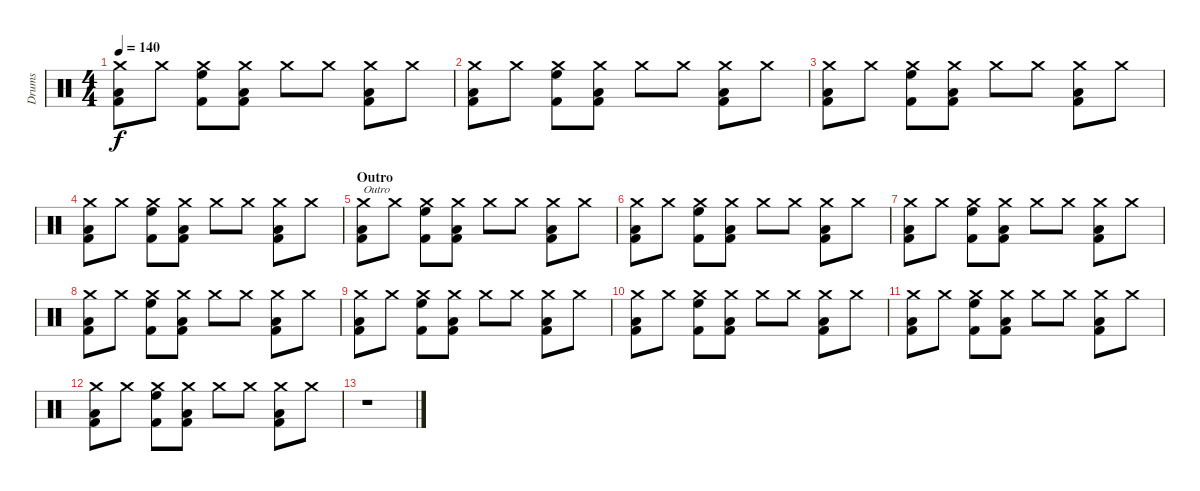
\track ("Drums" "Drums") {instrument percussion}
\staff {score}
\articulation defaults
\ts (4 4)
\tempo 140
\clef neutral
\ks c
("Low Tom (hit)" "Crash medium (hit)" "Kick (hit) 2").8{dy f} "Crash medium (hit)".8 ("High Floor Tom (hit)" "Crash medium (hit)" "Kick (hit) 2").8 ("Low Tom (hit)" "Crash medium (hit)" "Kick (hit) 2").8 "Crash medium (hit)".8 "Crash medium (hit)".8 ("Low Tom (hit)" "Crash medium (hit)" "Kick (hit) 2").8 "Crash medium (hit)".8 |
("Low Tom (hit)" "Crash medium (hit)" "Kick (hit) 2").8 "Crash medium (hit)".8 ("High Floor Tom (hit)" "Crash medium (hit)" "Kick (hit) 2").8 ("Low Tom (hit)" "Crash medium (hit)" "Kick (hit) 2").8 "Crash medium (hit)".8 "Crash medium (hit)".8 ("Low Tom (hit)" "Crash medium (hit)" "Kick (hit) 2").8 "Crash medium (hit)".8 |
("Low Tom (hit)" "Crash medium (hit)" "Kick (hit) 2").8 "Crash medium (hit)".8 ("High Floor Tom (hit)" "Crash medium (hit)" "Kick (hit) 2").8 ("Low Tom (hit)" "Crash medium (hit)" "Kick (hit) 2").8 "Crash medium (hit)".8 "Crash medium (hit)".8 ("Low Tom (hit)" "Crash medium (hit)" "Kick (hit) 2").8 "Crash medium (hit)".8 |
("Low Tom (hit)" "Crash medium (hit)" "Kick (hit) 2").8 "Crash medium (hit)".8 ("High Floor Tom (hit)" "Crash medium (hit)" "Kick (hit) 2").8 ("Low Tom (hit)" "Crash medium (hit)" "Kick (hit) 2").8 "Crash medium (hit)".8 "Crash medium (hit)".8 ("Low Tom (hit)" "Crash medium (hit)" "Kick (hit) 2").8 "Crash medium (hit)".8 |
\section ("" "Outro")
("Low Tom (hit)" "Crash medium (hit)" "Kick (hit) 2").8{txt "Outro"} "Crash medium (hit)".8 ("High Floor Tom (hit)" "Crash medium (hit)" "Kick (hit) 2").8 ("Low Tom (hit)" "Crash medium (hit)" "Kick (hit) 2").8 "Crash medium (hit)".8 "Crash medium (hit)".8 ("Low Tom (hit)" "Crash medium (hit)" "Kick (hit) 2").8 "Crash medium (hit)".8 |
("Low Tom (hit)" "Crash medium (hit)" "Kick (hit) 2").8 "Crash medium (hit)".8 ("High Floor Tom (hit)" "Crash medium (hit)" "Kick (hit) 2").8 ("Low Tom (hit)" "Crash medium (hit)" "Kick (hit) 2").8 "Crash medium (hit)".8 "Crash medium (hit)".8 ("Low Tom (hit)" "Crash medium (hit)" "Kick (hit) 2").8 "Crash medium (hit)".8 |
("Low Tom (hit)" "Crash medium (hit)" "Kick (hit) 2").8 "Crash medium (hit)".8 ("High Floor Tom (hit)" "Crash medium (hit)" "Kick (hit) 2").8 ("Low Tom (hit)" "Crash medium (hit)" "Kick (hit) 2").8 "Crash medium (hit)".8 "Crash medium (hit)".8 ("Low Tom (hit)" "Crash medium (hit)" "Kick (hit) 2").8 "Crash medium (hit)".8 |
("Low Tom (hit)" "Crash medium (hit)" "Kick (hit) 2").8 "Crash medium (hit)".8 ("High Floor Tom (hit)" "Crash medium (hit)" "Kick (hit) 2").8 ("Low Tom (hit)" "Crash medium (hit)" "Kick (hit) 2").8 "Crash medium (hit)".8 "Crash medium (hit)".8 ("Low Tom (hit)" "Crash medium (hit)" "Kick (hit) 2").8 "Crash medium (hit)".8 |
("Low Tom (hit)" "Crash medium (hit)" "Kick (hit) 2").8 "Crash medium (hit)".8 ("High Floor Tom (hit)" "Crash medium (hit)" "Kick (hit) 2").8 ("Low Tom (hit)" "Crash medium (hit)" "Kick (hit) 2").8 "Crash medium (hit)".8 "Crash medium (hit)".8 ("Low Tom (hit)" "Crash medium (hit)" "Kick (hit) 2").8 "Crash medium (hit)".8 |
("Low Tom (hit)" "Crash medium (hit)" "Kick (hit) 2").8 "Crash medium (hit)".8 ("High Floor Tom (hit)" "Crash medium (hit)" "Kick (hit) 2").8 ("Low Tom (hit)" "Crash medium (hit)" "Kick (hit) 2").8 "Crash medium (hit)".8 "Crash medium (hit)".8 ("Low Tom (hit)" "Crash medium (hit)" "Kick (hit) 2").8 "Crash medium (hit)".8 |
("Low Tom (hit)" "Crash medium (hit)" "Kick (hit) 2").8 "Crash medium (hit)".8 ("High Floor Tom (hit)" "Crash medium (hit)" "Kick (hit) 2").8 ("Low Tom (hit)" "Crash medium (hit)" "Kick (hit) 2").8 "Crash medium (hit)".8 "Crash medium (hit)".8 ("Low Tom (hit)" "Crash medium (hit)" "Kick (hit) 2").8 "Crash medium (hit)".8 |
("Low Tom (hit)" "Crash medium (hit)" "Kick (hit) 2").8 "Crash medium (hit)".8 ("High Floor Tom (hit)" "Crash medium (hit)" "Kick (hit) 2").8 ("Low Tom (hit)" "Crash medium (hit)" "Kick (hit) 2").8 "Crash medium (hit)".8 "Crash medium (hit)".8 ("Low Tom (hit)" "Crash medium (hit)" "Kick (hit) 2").8 "Crash medium (hit)".8 |
r.1
